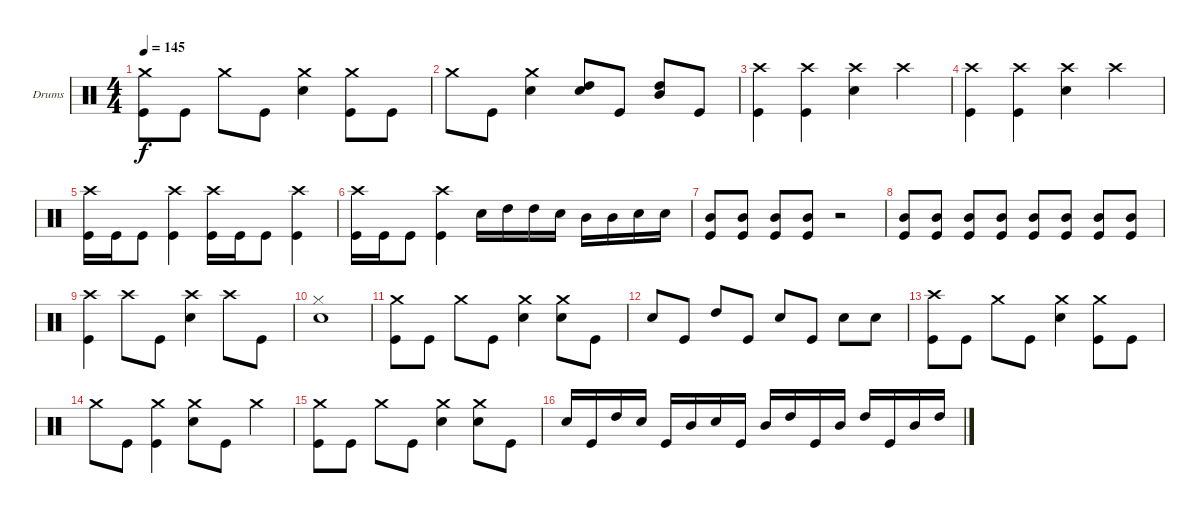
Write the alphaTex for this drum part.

\bracketExtendMode groupsimilarinstruments
\firstSystemTrackNameOrientation horizontal
\otherSystemsTrackNameOrientation horizontal
\track ("Drumkit" "Drums") {instrument percussion}
\staff {score}
\articulation defaults
\ts (4 4)
\tempo 145
\clef neutral
\ks c
("Kick (hit)" "Crash medium (hit)").8{dy f} "Kick (hit)".8 "Crash medium (hit)".8 "Kick (hit)".8 ("Snare (hit) 2" "Crash medium (hit)").4 ("Kick (hit)" "Crash medium (hit)").8 "Kick (hit)".8 |
"Crash medium (hit)".8 "Kick (hit)".8 ("Crash medium (hit)" "Snare (hit) 2").4 ("Snare (hit) 2" "High Tom (hit)").8 "Kick (hit)".8 ("High Tom (hit)" "Mid Tom (hit)").8 "Kick (hit)".8 |
("Crash high (hit)" "Kick (hit)").4 ("Crash high (hit)" "Kick (hit)").4 ("Crash high (hit)" "Snare (hit) 2").4 "Crash high (hit)".4 |
("Crash high (hit)" "Kick (hit)").4 ("Crash high (hit)" "Kick (hit)").4 ("Crash high (hit)" "Snare (hit) 2").4 "Crash high (hit)".4 |
("Crash high (hit)" "Kick (hit)").16 "Kick (hit)".16 "Kick (hit)".8 ("Kick (hit)" "Crash high (hit)").4 ("Crash high (hit)" "Kick (hit)").16 "Kick (hit)".16 "Kick (hit)".8 ("Kick (hit)" "Crash high (hit)").4 |
("Crash high (hit)" "Kick (hit)").16 "Kick (hit)".16 "Kick (hit)".8 ("Kick (hit)" "Crash high (hit)").4 "Snare (hit) 2".16 "High Tom (hit)".16 "High Tom (hit)".16 "Snare (hit) 2".16 "Mid Tom (hit)".16 "Mid Tom (hit)".16 "Snare (hit) 2".16 "Snare (hit) 2".16 |
("Mid Tom (hit)" "Kick (hit)").8 ("Mid Tom (hit)" "Kick (hit)").8 ("Mid Tom (hit)" "Kick (hit)").8 ("Mid Tom (hit)" "Kick (hit)").8 r.2 |
("Mid Tom (hit)" "Kick (hit)").8 ("Mid Tom (hit)" "Kick (hit)").8 ("Mid Tom (hit)" "Kick (hit)").8 ("Mid Tom (hit)" "Kick (hit)").8 ("Mid Tom (hit)" "Kick (hit)").8 ("Mid Tom (hit)" "Kick (hit)").8 ("Mid Tom (hit)" "Kick (hit)").8 ("Mid Tom (hit)" "Kick (hit)").8 |
("Crash high (hit)" "Kick (hit)").4 "Crash high (hit)".8 "Kick (hit)".8 ("Snare (hit) 2" "Crash high (hit)").4 "Crash high (hit)".8 "Kick (hit)".8 |
("Snare (hit) 2" "Hi-Hat (closed)").1 |
("Kick (hit)" "Crash medium (hit)").8 "Kick (hit)".8 "Crash medium (hit)".8 "Kick (hit)".8 ("Snare (hit) 2" "Crash medium (hit)").4 ("Crash medium (hit)" "Snare (hit) 2").8 "Kick (hit)".8 |
"Snare (hit) 2".8 "Kick (hit)".8 "High Tom (hit)".8 "Kick (hit)".8 "Snare (hit) 2".8 "Kick (hit)".8 "Snare (hit) 2".8 "Snare (hit) 2".8 |
("Crash high (hit)" "Kick (hit)").8 "Kick (hit)".8 "Crash medium (hit)".8 "Kick (hit)".8 ("Snare (hit) 2" "Crash medium (hit)").4 ("Kick (hit)" "Crash medium (hit)").8 "Kick (hit)".8 |
"Crash medium (hit)".8 "Kick (hit)".8 ("Kick (hit)" "Crash medium (hit)").4 ("Snare (hit) 2" "Crash medium (hit)").8 "Kick (hit)".8 "Crash medium (hit)".4 |
("Kick (hit)" "Crash medium (hit)").8 "Kick (hit)".8 "Crash medium (hit)".8 "Kick (hit)".8 ("Snare (hit) 2" "Crash medium (hit)").4 ("Crash medium (hit)" "Snare (hit) 2").8 "Kick (hit)".8 |
"Snare (hit) 2".16 "Kick (hit)".16 "High Tom (hit)".16 "Snare (hit) 2".16 "Kick (hit)".16 "Mid Tom (hit)".16 "Snare (hit) 2".16 "Kick (hit)".16 "Mid Tom (hit)".16 "High Tom (hit)".16 "Kick (hit)".16 "Mid Tom (hit)".16 "High Tom (hit)".16 "Kick (hit)".16 "Mid Tom (hit)".16 "High Tom (hit)".16
